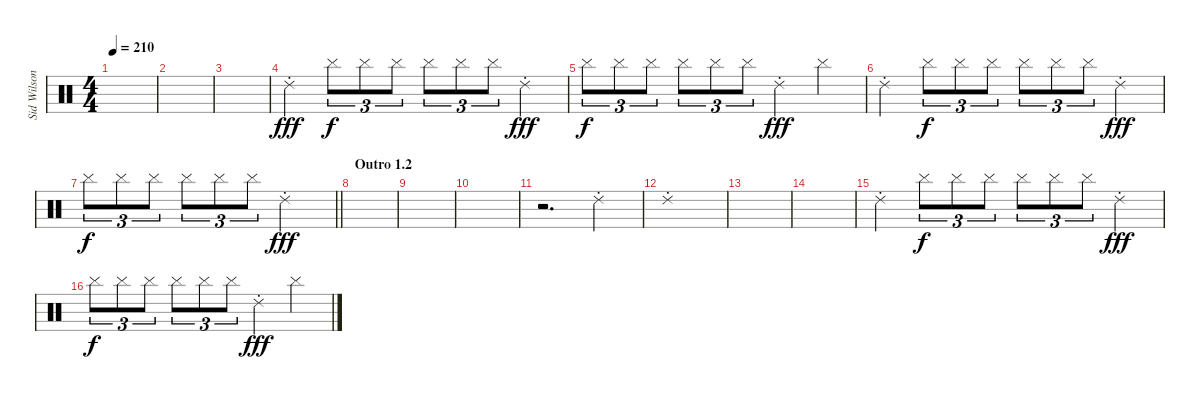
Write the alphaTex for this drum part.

\track ("Sid Wilson" "Sid Wilson") {instrument percussion}
\staff {score}
\articulation defaults
\ts (4 4)
\tempo 210
\clef neutral
\ks c
|
|
|
"Ride (choke) 2".4{dy fff} "Cymbal (hit)".8{tu (3 2) dy f} "Cymbal (hit)".8{tu (3 2)} "Cymbal (hit)".8{tu (3 2)} "Cymbal (hit)".8{tu (3 2)} "Cymbal (hit)".8{tu (3 2)} "Cymbal (hit)".8{tu (3 2)} "Ride (choke) 2".4{dy fff} |
"Cymbal (hit)".8{tu (3 2) dy f} "Cymbal (hit)".8{tu (3 2)} "Cymbal (hit)".8{tu (3 2)} "Cymbal (hit)".8{tu (3 2)} "Cymbal (hit)".8{tu (3 2)} "Cymbal (hit)".8{tu (3 2)} "Ride (choke) 2".4{dy fff} "Cymbal (hit)".4 |
"Ride (choke) 2".4 "Cymbal (hit)".8{tu (3 2) dy f} "Cymbal (hit)".8{tu (3 2)} "Cymbal (hit)".8{tu (3 2)} "Cymbal (hit)".8{tu (3 2)} "Cymbal (hit)".8{tu (3 2)} "Cymbal (hit)".8{tu (3 2)} "Ride (choke) 2".4{dy fff} |
\barLineRight lightlight "Cymbal (hit)".8{tu (3 2) dy f} "Cymbal (hit)".8{tu (3 2)} "Cymbal (hit)".8{tu (3 2)} "Cymbal (hit)".8{tu (3 2)} "Cymbal (hit)".8{tu (3 2)} "Cymbal (hit)".8{tu (3 2)} "Ride (choke) 2".2{dy fff}
|
\section ("" "Outro 1.2")
|
|
|
r.2{d} "Ride (choke) 2".4 |
"Ride (choke) 2".1 |
|
|
"Ride (choke) 2".4 "Cymbal (hit)".8{tu (3 2) dy f} "Cymbal (hit)".8{tu (3 2)} "Cymbal (hit)".8{tu (3 2)} "Cymbal (hit)".8{tu (3 2)} "Cymbal (hit)".8{tu (3 2)} "Cymbal (hit)".8{tu (3 2)} "Ride (choke) 2".4{dy fff} |
"Cymbal (hit)".8{tu (3 2) dy f} "Cymbal (hit)".8{tu (3 2)} "Cymbal (hit)".8{tu (3 2)} "Cymbal (hit)".8{tu (3 2)} "Cymbal (hit)".8{tu (3 2)} "Cymbal (hit)".8{tu (3 2)} "Ride (choke) 2".4{dy fff} "Cymbal (hit)".4
